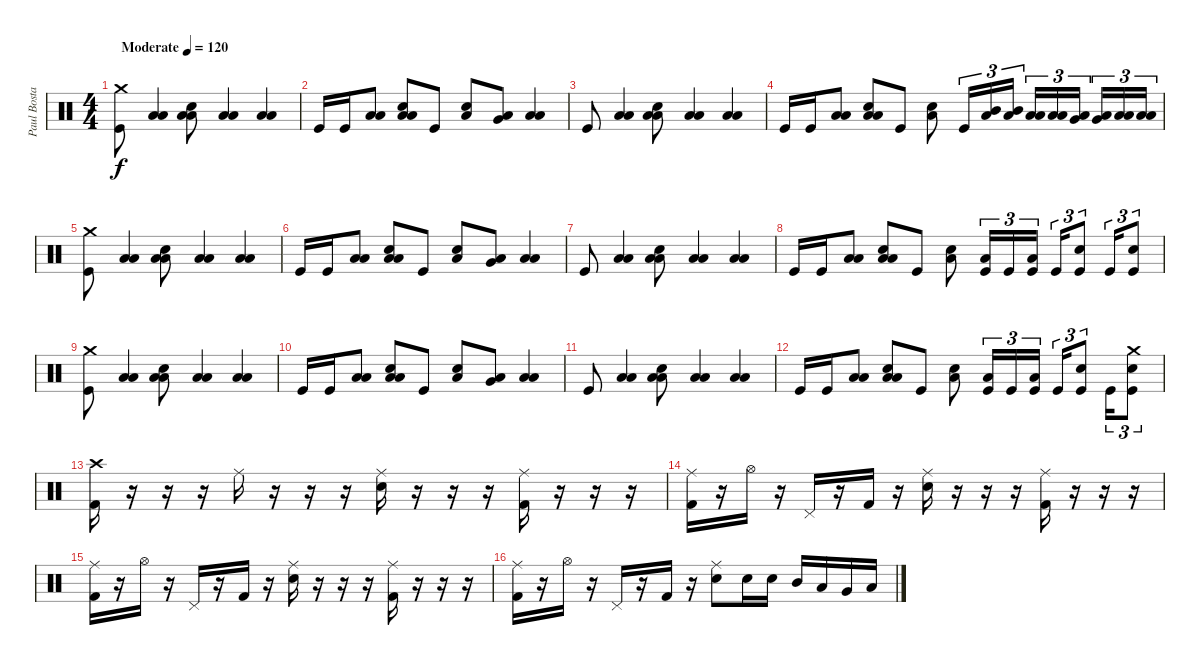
\track ("Paul Bostaph" "Paul Bosta") {instrument percussion}
\staff {score}
\articulation defaults
\ts (4 4)
\tempo (120 "Moderate")
\clef neutral
\ks c
("Crash medium (hit)" "Kick (hit)").8{dy f} ("Low Floor Tom (hit)" "Low Floor Tom (hit)").4 ("Low Floor Tom (hit)" "Snare (hit) 2" "Low Floor Tom (hit)").8 ("Low Floor Tom (hit)" "Low Floor Tom (hit)").4 ("Low Floor Tom (hit)" "Low Floor Tom (hit)").4 |
"Kick (hit)".16 "Kick (hit)".16 ("Low Floor Tom (hit)" "Low Floor Tom (hit)").8 ("Low Floor Tom (hit)" "Snare (hit) 2" "Low Floor Tom (hit)").8 "Kick (hit)".8 ("Low Floor Tom (hit)" "Snare (hit) 2").8 ("Low Floor Tom (hit)" "Very Low Tom (hit)").8 ("Low Floor Tom (hit)" "Low Floor Tom (hit)").4 |
"Kick (hit)".8 ("Low Floor Tom (hit)" "Low Floor Tom (hit)").4 ("Low Floor Tom (hit)" "Snare (hit) 2" "Low Floor Tom (hit)").8 ("Low Floor Tom (hit)" "Low Floor Tom (hit)").4 ("Low Floor Tom (hit)" "Low Floor Tom (hit)").4 |
"Kick (hit)".16 "Kick (hit)".16 ("Low Floor Tom (hit)" "Low Floor Tom (hit)").8 ("Low Floor Tom (hit)" "Snare (hit) 2" "Low Floor Tom (hit)").8 "Kick (hit)".8 ("Low Floor Tom (hit)" "Snare (hit) 2").8 "Kick (hit)".16{tu (3 2)} ("Mid Tom (hit)" "Low Floor Tom (hit)").16{tu (3 2)} ("Mid Tom (hit)" "Low Floor Tom (hit)").16{tu (3 2)} ("Low Tom (hit)" "Low Floor Tom (hit)").16{tu (3 2)} ("Low Tom (hit)" "Low Floor Tom (hit)").16{tu (3 2)} ("Very Low Tom (hit)" "Low Floor Tom (hit)").16{tu (3 2) beam splitsecondary} ("Very Low Tom (hit)" "Low Floor Tom (hit)").16{tu (3 2)} ("Low Floor Tom (hit)" "Low Floor Tom (hit)").16{tu (3 2)} ("Low Floor Tom (hit)" "Low Floor Tom (hit)").16{tu (3 2)} |
("Crash medium (hit)" "Kick (hit)").8 ("Low Floor Tom (hit)" "Low Floor Tom (hit)").4 ("Low Floor Tom (hit)" "Snare (hit) 2" "Low Floor Tom (hit)").8 ("Low Floor Tom (hit)" "Low Floor Tom (hit)").4 ("Low Floor Tom (hit)" "Low Floor Tom (hit)").4 |
"Kick (hit)".16 "Kick (hit)".16 ("Low Floor Tom (hit)" "Low Floor Tom (hit)").8 ("Low Floor Tom (hit)" "Snare (hit) 2" "Low Floor Tom (hit)").8 "Kick (hit)".8 ("Low Floor Tom (hit)" "Snare (hit) 2").8 ("Low Floor Tom (hit)" "Very Low Tom (hit)").8 ("Low Floor Tom (hit)" "Low Floor Tom (hit)").4 |
"Kick (hit)".8 ("Low Floor Tom (hit)" "Low Floor Tom (hit)").4 ("Low Floor Tom (hit)" "Snare (hit) 2" "Low Floor Tom (hit)").8 ("Low Floor Tom (hit)" "Low Floor Tom (hit)").4 ("Low Floor Tom (hit)" "Low Floor Tom (hit)").4 |
"Kick (hit)".16 "Kick (hit)".16 ("Low Floor Tom (hit)" "Low Floor Tom (hit)").8 ("Low Floor Tom (hit)" "Snare (hit) 2" "Low Floor Tom (hit)").8 "Kick (hit)".8 ("Low Floor Tom (hit)" "Snare (hit) 2").8 ("Low Floor Tom (hit)" "Kick (hit)").16{tu (3 2)} "Kick (hit)".16{tu (3 2)} ("Low Floor Tom (hit)" "Kick (hit)").16{tu (3 2)} "Kick (hit)".16{tu (3 2)} ("Snare (hit) 2" "Kick (hit)").8{tu (3 2)} "Kick (hit)".16{tu (3 2)} ("Snare (hit) 2" "Kick (hit)").8{tu (3 2)} |
("Crash medium (hit)" "Kick (hit)").8 ("Low Floor Tom (hit)" "Low Floor Tom (hit)").4 ("Low Floor Tom (hit)" "Snare (hit) 2" "Low Floor Tom (hit)").8 ("Low Floor Tom (hit)" "Low Floor Tom (hit)").4 ("Low Floor Tom (hit)" "Low Floor Tom (hit)").4 |
"Kick (hit)".16 "Kick (hit)".16 ("Low Floor Tom (hit)" "Low Floor Tom (hit)").8 ("Low Floor Tom (hit)" "Snare (hit) 2" "Low Floor Tom (hit)").8 "Kick (hit)".8 ("Low Floor Tom (hit)" "Snare (hit) 2").8 ("Low Floor Tom (hit)" "Very Low Tom (hit)").8 ("Low Floor Tom (hit)" "Low Floor Tom (hit)").4 |
"Kick (hit)".8 ("Low Floor Tom (hit)" "Low Floor Tom (hit)").4 ("Low Floor Tom (hit)" "Snare (hit) 2" "Low Floor Tom (hit)").8 ("Low Floor Tom (hit)" "Low Floor Tom (hit)").4 ("Low Floor Tom (hit)" "Low Floor Tom (hit)").4 |
"Kick (hit)".16 "Kick (hit)".16 ("Low Floor Tom (hit)" "Low Floor Tom (hit)").8 ("Low Floor Tom (hit)" "Snare (hit) 2" "Low Floor Tom (hit)").8 "Kick (hit)".8 ("Low Floor Tom (hit)" "Snare (hit) 2").8 ("Low Floor Tom (hit)" "Kick (hit)").16{tu (3 2)} "Kick (hit)".16{tu (3 2)} ("Low Floor Tom (hit)" "Kick (hit)").16{tu (3 2)} "Kick (hit)".16{tu (3 2)} ("Snare (hit) 2" "Kick (hit)").8{tu (3 2)} "Kick (hit)".16{tu (3 2)} ("Crash medium (hit)" "Snare (hit) 2" "Kick (hit)").8{tu (3 2)} |
("Crash high (hit)" "Kick (hit) 2").16 r.16 r.16 r.16 "Ride (middle)".16 r.16 r.16 r.16 ("Ride (middle)" "Snare (hit) 2").16 r.16 r.16 r.16 ("Ride (middle)" "Kick (hit) 2").16 r.16 r.16 r.16 |
("Ride (middle)" "Kick (hit) 2").16 r.16 "Hi-Hat (open)".16 r.16 "Pedal Hi-Hat (hit)".16 r.16 "Kick (hit) 2".16 r.16 ("Ride (middle)" "Snare (hit) 2").16 r.16 r.16 r.16 ("Ride (middle)" "Kick (hit) 2").16 r.16 r.16 r.16 |
("Ride (middle)" "Kick (hit) 2").16 r.16 "Hi-Hat (open)".16 r.16 "Pedal Hi-Hat (hit)".16 r.16 "Kick (hit) 2".16 r.16 ("Ride (middle)" "Snare (hit) 2").16 r.16 r.16 r.16 ("Ride (middle)" "Kick (hit) 2").16 r.16 r.16 r.16 |
("Ride (middle)" "Kick (hit) 2").16 r.16 "Hi-Hat (open)".16 r.16 "Pedal Hi-Hat (hit)".16 r.16 "Kick (hit) 2".16 r.16 ("Ride (middle)" "Snare (hit) 2").8 "Snare (hit) 2".16 "Snare (hit) 2".16 "Mid Tom (hit)".16 "Low Tom (hit)".16 "Very Low Tom (hit)".16 "Low Floor Tom (hit)".16
